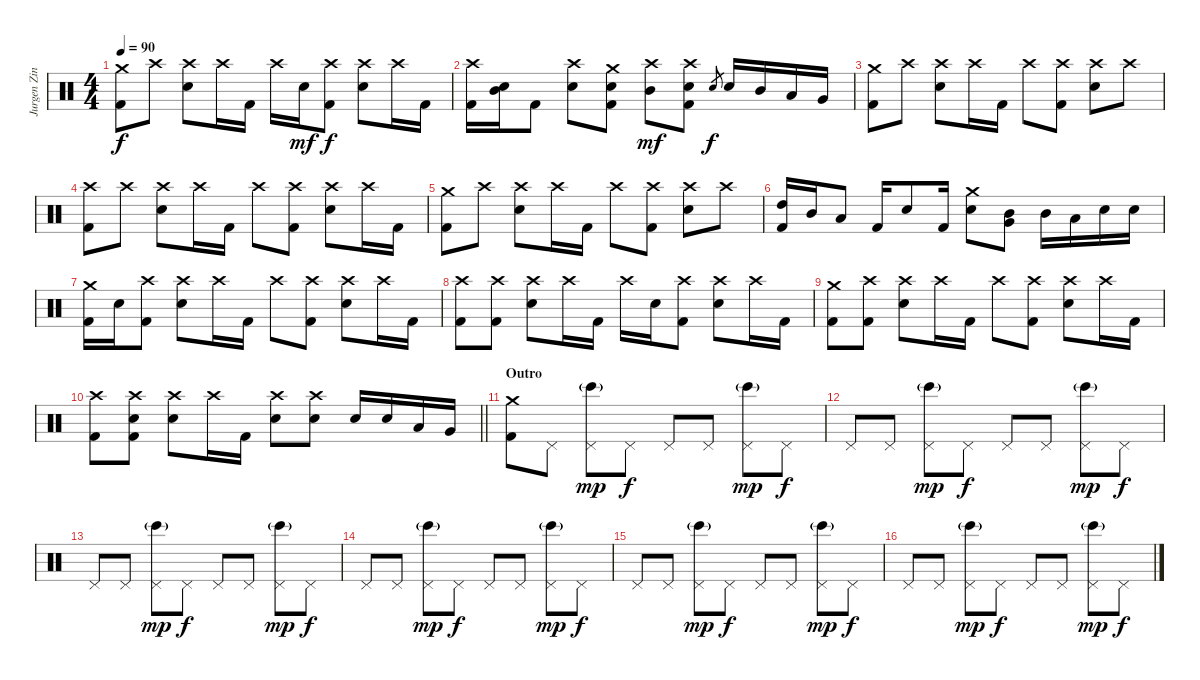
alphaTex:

\track ("Jurgen Zing" "Jurgen Zin") {instrument percussion}
\staff {score}
\articulation defaults
\ts (4 4)
\tempo 90
\clef neutral
\ks c
("Crash medium (hit)" "Kick (hit) 2").8{dy f} "Crash high (hit)".8 ("Crash high (hit)" "Electric Snare (hit)").8 "Crash high (hit)".16 "Kick (hit) 2".16 "Crash high (hit)".16 "Electric Snare (hit)".16{dy mf} ("Crash high (hit)" "Kick (hit) 2").8{dy f} ("Crash high (hit)" "Electric Snare (hit)").8 "Crash high (hit)".16 "Kick (hit) 2".16 |
("Crash high (hit)" "Kick (hit) 2").16 ("Mid Tom (hit)" "Electric Snare (hit)").16 "Kick (hit) 2".8 ("Crash high (hit)" "Electric Snare (hit)").8 ("Crash medium (hit)" "Electric Snare (hit)" "Kick (hit) 2").8 ("Crash high (hit)" "Mid Tom (hit)").8{dy mf} ("Crash high (hit)" "Electric Snare (hit)" "Kick (hit) 2").8 "Electric Snare (hit)".8{gr dy f} "Electric Snare (hit)".16 "Mid Tom (hit)".16 "Low Tom (hit)".16 "Very Low Tom (hit)".16 |
("Crash medium (hit)" "Kick (hit) 2").8 "Crash high (hit)".8 ("Crash high (hit)" "Electric Snare (hit)").8 "Crash high (hit)".16 "Kick (hit) 2".16 "Crash high (hit)".8 ("Crash high (hit)" "Kick (hit) 2").8 ("Crash high (hit)" "Electric Snare (hit)").8 "Crash high (hit)".8 |
("Crash high (hit)" "Kick (hit) 2").8 "Crash high (hit)".8 ("Crash high (hit)" "Electric Snare (hit)").8 "Crash high (hit)".16 "Kick (hit) 2".16 "Crash high (hit)".8 ("Crash high (hit)" "Kick (hit) 2").8 ("Crash high (hit)" "Electric Snare (hit)").8 "Crash high (hit)".16 "Kick (hit) 2".16 |
("Crash medium (hit)" "Kick (hit) 2").8 "Crash high (hit)".8 ("Crash high (hit)" "Electric Snare (hit)").8 "Crash high (hit)".16 "Kick (hit) 2".16 "Crash high (hit)".8 ("Crash high (hit)" "Kick (hit) 2").8 ("Crash high (hit)" "Electric Snare (hit)").8 "Crash high (hit)".8 |
("High Tom (hit)" "Kick (hit) 2").16 "Mid Tom (hit)".16 "Low Tom (hit)".8 "Kick (hit) 2".16 "Electric Snare (hit)".8 "Kick (hit) 2".16 ("Crash medium (hit)" "Electric Snare (hit)").8 ("Mid Tom (hit)" "Very Low Tom (hit)").8 "Mid Tom (hit)".16 "Low Tom (hit)".16 "Electric Snare (hit)".16 "Electric Snare (hit)".16 |
("Crash medium (hit)" "Kick (hit) 2").16 "Electric Snare (hit)".16 ("Crash high (hit)" "Kick (hit) 2").8 ("Crash high (hit)" "Electric Snare (hit)").8 "Crash high (hit)".16 "Kick (hit) 2".16 "Crash high (hit)".8 ("Crash high (hit)" "Kick (hit) 2").8 ("Crash high (hit)" "Electric Snare (hit)").8 "Crash high (hit)".16 "Kick (hit) 2".16 |
("Crash high (hit)" "Kick (hit) 2").8 ("Crash high (hit)" "Kick (hit) 2").8 ("Crash high (hit)" "Electric Snare (hit)").8 "Crash high (hit)".16 "Kick (hit) 2".16 "Crash high (hit)".16 "Electric Snare (hit)".16 ("Crash high (hit)" "Kick (hit) 2").8 ("Crash high (hit)" "Electric Snare (hit)").8 "Crash high (hit)".16 "Kick (hit) 2".16 |
("Crash medium (hit)" "Kick (hit) 2").8 ("Crash high (hit)" "Kick (hit) 2").8 ("Crash high (hit)" "Electric Snare (hit)").8 "Crash high (hit)".16 "Kick (hit) 2".16 "Crash high (hit)".8 ("Crash high (hit)" "Kick (hit) 2").8 ("Crash high (hit)" "Electric Snare (hit)").8 "Crash high (hit)".16 "Kick (hit) 2".16 |
\barLineRight lightlight
("Crash high (hit)" "Kick (hit) 2").8 ("Crash high (hit)" "Electric Snare (hit)" "Kick (hit) 2").8 ("Crash high (hit)" "Electric Snare (hit)").8 "Crash high (hit)".16 "Kick (hit) 2".16 ("Crash high (hit)" "Electric Snare (hit)").8 ("Crash high (hit)" "Electric Snare (hit)").8 "Electric Snare (hit)".16 "Electric Snare (hit)".16 "Low Tom (hit)".16 "Very Low Tom (hit)".16 |
\section ("" "Outro")
("Crash medium (hit)" "Kick (hit) 2").8 "Pedal Hi-Hat (hit)".8 ("Pedal Hi-Hat (hit)" "Bongo High (hit)"{g}).8{dy mp} "Pedal Hi-Hat (hit)".8{dy f} "Pedal Hi-Hat (hit)".8 "Pedal Hi-Hat (hit)".8 ("Pedal Hi-Hat (hit)" "Bongo High (hit)"{g}).8{dy mp} "Pedal Hi-Hat (hit)".8{dy f} |
"Pedal Hi-Hat (hit)".8 "Pedal Hi-Hat (hit)".8 ("Pedal Hi-Hat (hit)" "Bongo High (hit)"{g}).8{dy mp} "Pedal Hi-Hat (hit)".8{dy f} "Pedal Hi-Hat (hit)".8 "Pedal Hi-Hat (hit)".8 ("Pedal Hi-Hat (hit)" "Bongo High (hit)"{g}).8{dy mp} "Pedal Hi-Hat (hit)".8{dy f} |
"Pedal Hi-Hat (hit)".8 "Pedal Hi-Hat (hit)".8 ("Pedal Hi-Hat (hit)" "Bongo High (hit)"{g}).8{dy mp} "Pedal Hi-Hat (hit)".8{dy f} "Pedal Hi-Hat (hit)".8 "Pedal Hi-Hat (hit)".8 ("Pedal Hi-Hat (hit)" "Bongo High (hit)"{g}).8{dy mp} "Pedal Hi-Hat (hit)".8{dy f} |
"Pedal Hi-Hat (hit)".8 "Pedal Hi-Hat (hit)".8 ("Pedal Hi-Hat (hit)" "Bongo High (hit)"{g}).8{dy mp} "Pedal Hi-Hat (hit)".8{dy f} "Pedal Hi-Hat (hit)".8 "Pedal Hi-Hat (hit)".8 ("Pedal Hi-Hat (hit)" "Bongo High (hit)"{g}).8{dy mp} "Pedal Hi-Hat (hit)".8{dy f} |
"Pedal Hi-Hat (hit)".8 "Pedal Hi-Hat (hit)".8 ("Pedal Hi-Hat (hit)" "Bongo High (hit)"{g}).8{dy mp} "Pedal Hi-Hat (hit)".8{dy f} "Pedal Hi-Hat (hit)".8 "Pedal Hi-Hat (hit)".8 ("Pedal Hi-Hat (hit)" "Bongo High (hit)"{g}).8{dy mp} "Pedal Hi-Hat (hit)".8{dy f} |
"Pedal Hi-Hat (hit)".8 "Pedal Hi-Hat (hit)".8 ("Pedal Hi-Hat (hit)" "Bongo High (hit)"{g}).8{dy mp} "Pedal Hi-Hat (hit)".8{dy f} "Pedal Hi-Hat (hit)".8 "Pedal Hi-Hat (hit)".8 ("Pedal Hi-Hat (hit)" "Bongo High (hit)"{g}).8{dy mp} "Pedal Hi-Hat (hit)".8{dy f}
